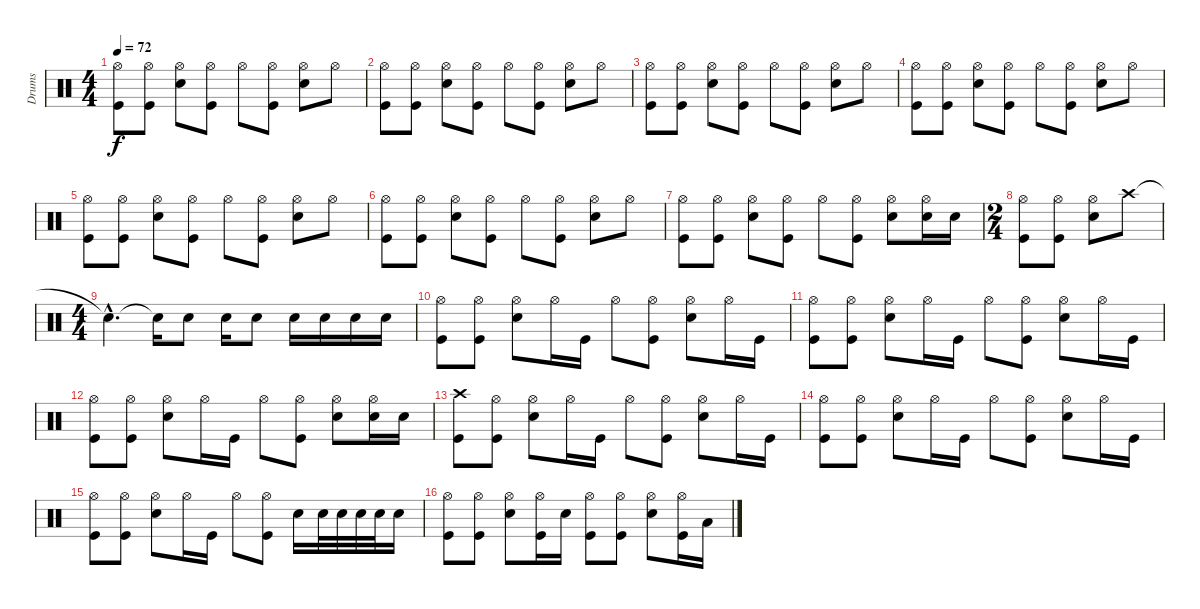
\track ("Drums" "Drums") {instrument percussion}
\staff {score}
\articulation defaults
\ts (4 4)
\tempo 72
\clef neutral
\ks c
("Kick (hit)" "Hi-Hat (open)").8{dy f} ("Kick (hit)" "Hi-Hat (open)").8 ("Snare (hit) 2" "Hi-Hat (open)").8 ("Kick (hit)" "Hi-Hat (open)").8 "Hi-Hat (open)".8 ("Kick (hit)" "Hi-Hat (open)").8 ("Snare (hit) 2" "Hi-Hat (open)").8 "Hi-Hat (open)".8 |
("Kick (hit)" "Hi-Hat (open)").8 ("Kick (hit)" "Hi-Hat (open)").8 ("Snare (hit) 2" "Hi-Hat (open)").8 ("Kick (hit)" "Hi-Hat (open)").8 "Hi-Hat (open)".8 ("Kick (hit)" "Hi-Hat (open)").8 ("Snare (hit) 2" "Hi-Hat (open)").8 "Hi-Hat (open)".8 |
("Kick (hit)" "Hi-Hat (open)").8 ("Kick (hit)" "Hi-Hat (open)").8 ("Snare (hit) 2" "Hi-Hat (open)").8 ("Kick (hit)" "Hi-Hat (open)").8 "Hi-Hat (open)".8 ("Kick (hit)" "Hi-Hat (open)").8 ("Snare (hit) 2" "Hi-Hat (open)").8 "Hi-Hat (open)".8 |
("Kick (hit)" "Hi-Hat (open)").8 ("Kick (hit)" "Hi-Hat (open)").8 ("Snare (hit) 2" "Hi-Hat (open)").8 ("Kick (hit)" "Hi-Hat (open)").8 "Hi-Hat (open)".8 ("Kick (hit)" "Hi-Hat (open)").8 ("Snare (hit) 2" "Hi-Hat (open)").8 "Hi-Hat (open)".8 |
("Kick (hit)" "Hi-Hat (open)").8 ("Kick (hit)" "Hi-Hat (open)").8 ("Snare (hit) 2" "Hi-Hat (open)").8 ("Kick (hit)" "Hi-Hat (open)").8 "Hi-Hat (open)".8 ("Kick (hit)" "Hi-Hat (open)").8 ("Snare (hit) 2" "Hi-Hat (open)").8 "Hi-Hat (open)".8 |
("Kick (hit)" "Hi-Hat (open)").8 ("Kick (hit)" "Hi-Hat (open)").8 ("Snare (hit) 2" "Hi-Hat (open)").8 ("Kick (hit)" "Hi-Hat (open)").8 "Hi-Hat (open)".8 ("Kick (hit)" "Hi-Hat (open)").8 ("Snare (hit) 2" "Hi-Hat (open)").8 "Hi-Hat (open)".8 |
("Kick (hit)" "Hi-Hat (open)").8 ("Kick (hit)" "Hi-Hat (open)").8 ("Snare (hit) 2" "Hi-Hat (open)").8 ("Kick (hit)" "Hi-Hat (open)").8 "Hi-Hat (open)".8 ("Kick (hit)" "Hi-Hat (open)").8 ("Hi-Hat (open)" "Snare (hit) 2").8 ("Hi-Hat (open)" "Snare (hit) 2").16 "Snare (hit) 2".16 |
\ts (2 4)
("Kick (hit)" "Hi-Hat (open)").8 ("Kick (hit)" "Hi-Hat (open)").8 ("Snare (hit) 2" "Hi-Hat (open)").8 "Crash high (hit)".8 |
\ts (4 4)
"Snare (hit)"{hac t}.4{d} "Snare (hit)"{t}.16 "Snare (hit) 2".8 "Snare (hit) 2".16 "Snare (hit) 2".8 "Snare (hit) 2".16 "Snare (hit) 2".16 "Snare (hit) 2".16 "Snare (hit) 2".16 |
("Kick (hit)" "Hi-Hat (open)").8 ("Kick (hit)" "Hi-Hat (open)").8 ("Snare (hit) 2" "Hi-Hat (open)").8 "Hi-Hat (open)".16 "Kick (hit)".16 "Hi-Hat (open)".8 ("Hi-Hat (open)" "Kick (hit)").8 ("Snare (hit) 2" "Hi-Hat (open)").8 "Hi-Hat (open)".16 "Kick (hit)".16 |
("Kick (hit)" "Hi-Hat (open)").8 ("Kick (hit)" "Hi-Hat (open)").8 ("Snare (hit) 2" "Hi-Hat (open)").8 "Hi-Hat (open)".16 "Kick (hit)".16 "Hi-Hat (open)".8 ("Hi-Hat (open)" "Kick (hit)").8 ("Snare (hit) 2" "Hi-Hat (open)").8 "Hi-Hat (open)".16 "Kick (hit)".16 |
("Kick (hit)" "Hi-Hat (open)").8 ("Kick (hit)" "Hi-Hat (open)").8 ("Snare (hit) 2" "Hi-Hat (open)").8 "Hi-Hat (open)".16 "Kick (hit)".16 "Hi-Hat (open)".8 ("Hi-Hat (open)" "Kick (hit)").8 ("Snare (hit) 2" "Hi-Hat (open)").8 ("Hi-Hat (open)" "Snare (hit) 2").16 "Snare (hit) 2".16 |
("Kick (hit)" "Crash high (hit)").8 ("Kick (hit)" "Hi-Hat (open)").8 ("Snare (hit) 2" "Hi-Hat (open)").8 "Hi-Hat (open)".16 "Kick (hit)".16 "Hi-Hat (open)".8 ("Hi-Hat (open)" "Kick (hit)").8 ("Snare (hit) 2" "Hi-Hat (open)").8 "Hi-Hat (open)".16 "Kick (hit)".16 |
("Kick (hit)" "Hi-Hat (open)").8 ("Kick (hit)" "Hi-Hat (open)").8 ("Snare (hit) 2" "Hi-Hat (open)").8 "Hi-Hat (open)".16 "Kick (hit)".16 "Hi-Hat (open)".8 ("Hi-Hat (open)" "Kick (hit)").8 ("Snare (hit) 2" "Hi-Hat (open)").8 "Hi-Hat (open)".16 "Kick (hit)".16 |
("Kick (hit)" "Hi-Hat (open)").8 ("Kick (hit)" "Hi-Hat (open)").8 ("Snare (hit) 2" "Hi-Hat (open)").8 "Hi-Hat (open)".16 "Kick (hit)".16 "Hi-Hat (open)".8 ("Hi-Hat (open)" "Kick (hit)").8 "Snare (hit) 2".16 "Snare (hit) 2".32 "Snare (hit) 2".32 "Snare (hit) 2".32 "Snare (hit) 2".32 "Snare (hit) 2".16 |
("Kick (hit)" "Hi-Hat (open)").8 ("Kick (hit)" "Hi-Hat (open)").8 ("Snare (hit) 2" "Hi-Hat (open)").8 ("Hi-Hat (open)" "Kick (hit)").16 "Snare (hit) 2".16 ("Kick (hit)" "Hi-Hat (open)").8 ("Kick (hit)" "Hi-Hat (open)").8 ("Snare (hit) 2" "Hi-Hat (open)").8 ("Kick (hit)" "Hi-Hat (open)").16 "Low Tom (hit)".16
